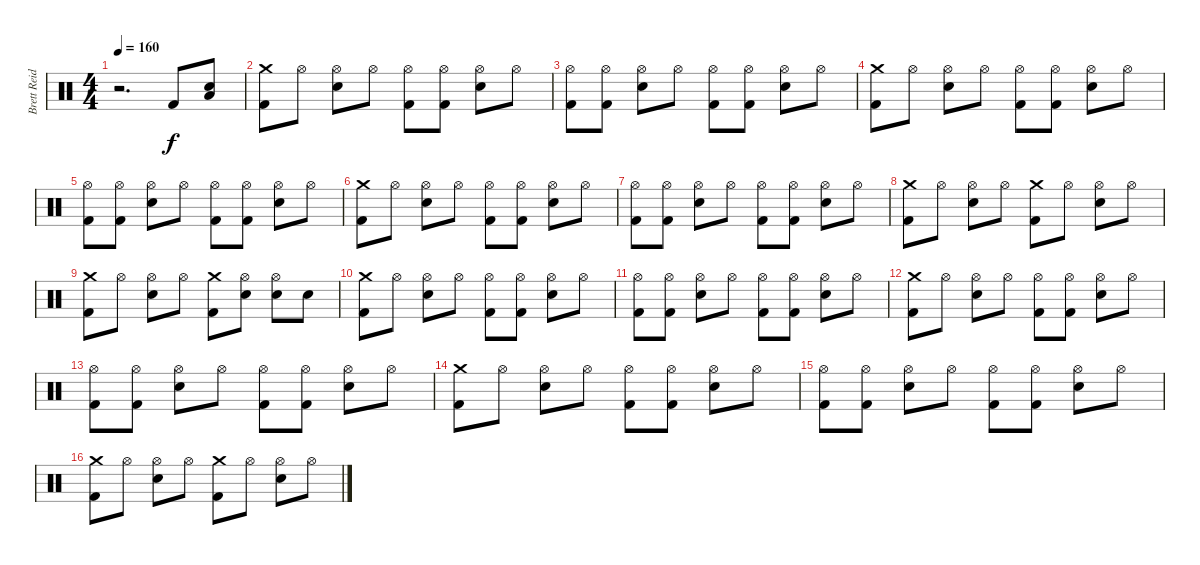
\track ("Brett Reid" "Brett Reid") {instrument percussion}
\staff {score}
\articulation defaults
\ts (4 4)
\tempo 160
\clef neutral
\ks c
r.2{d dy f} "Kick (hit) 2".8 ("Low Floor Tom (hit)" "Snare (hit) 2").8 |
("Crash medium (hit)" "Kick (hit) 2").8 "Hi-Hat (open)".8 ("Hi-Hat (open)" "Snare (hit) 2").8 "Hi-Hat (open)".8 ("Hi-Hat (open)" "Kick (hit) 2").8 ("Hi-Hat (open)" "Kick (hit) 2").8 ("Hi-Hat (open)" "Snare (hit) 2").8 "Hi-Hat (open)".8 |
("Hi-Hat (open)" "Kick (hit) 2").8 ("Hi-Hat (open)" "Kick (hit) 2").8 ("Hi-Hat (open)" "Snare (hit) 2").8 "Hi-Hat (open)".8 ("Hi-Hat (open)" "Kick (hit) 2").8 ("Hi-Hat (open)" "Kick (hit) 2").8 ("Hi-Hat (open)" "Snare (hit) 2").8 "Hi-Hat (open)".8 |
("Crash medium (hit)" "Kick (hit) 2").8 "Hi-Hat (open)".8 ("Hi-Hat (open)" "Snare (hit) 2").8 "Hi-Hat (open)".8 ("Hi-Hat (open)" "Kick (hit) 2").8 ("Hi-Hat (open)" "Kick (hit) 2").8 ("Hi-Hat (open)" "Snare (hit) 2").8 "Hi-Hat (open)".8 |
("Hi-Hat (open)" "Kick (hit) 2").8 ("Hi-Hat (open)" "Kick (hit) 2").8 ("Hi-Hat (open)" "Snare (hit) 2").8 "Hi-Hat (open)".8 ("Hi-Hat (open)" "Kick (hit) 2").8 ("Hi-Hat (open)" "Kick (hit) 2").8 ("Hi-Hat (open)" "Snare (hit) 2").8 "Hi-Hat (open)".8 |
("Crash medium (hit)" "Kick (hit) 2").8 "Hi-Hat (open)".8 ("Hi-Hat (open)" "Snare (hit) 2").8 "Hi-Hat (open)".8 ("Hi-Hat (open)" "Kick (hit) 2").8 ("Hi-Hat (open)" "Kick (hit) 2").8 ("Hi-Hat (open)" "Snare (hit) 2").8 "Hi-Hat (open)".8 |
("Hi-Hat (open)" "Kick (hit) 2").8 ("Hi-Hat (open)" "Kick (hit) 2").8 ("Hi-Hat (open)" "Snare (hit) 2").8 "Hi-Hat (open)".8 ("Hi-Hat (open)" "Kick (hit) 2").8 ("Hi-Hat (open)" "Kick (hit) 2").8 ("Hi-Hat (open)" "Snare (hit) 2").8 "Hi-Hat (open)".8 |
("Crash medium (hit)" "Kick (hit) 2").8 "Hi-Hat (open)".8 ("Hi-Hat (open)" "Snare (hit) 2").8 "Hi-Hat (open)".8 ("Crash medium (hit)" "Kick (hit) 2").8 "Hi-Hat (open)".8 ("Hi-Hat (open)" "Snare (hit) 2").8 "Hi-Hat (open)".8 |
("Crash medium (hit)" "Kick (hit) 2").8 "Hi-Hat (open)".8 ("Hi-Hat (open)" "Snare (hit) 2").8 "Hi-Hat (open)".8 ("Crash medium (hit)" "Kick (hit) 2").8 ("Hi-Hat (open)" "Snare (hit) 2").8 ("Hi-Hat (open)" "Snare (hit) 2").8 "Snare (hit) 2".8 |
("Crash medium (hit)" "Kick (hit) 2").8 "Hi-Hat (open)".8 ("Hi-Hat (open)" "Snare (hit) 2").8 "Hi-Hat (open)".8 ("Hi-Hat (open)" "Kick (hit) 2").8 ("Hi-Hat (open)" "Kick (hit) 2").8 ("Hi-Hat (open)" "Snare (hit) 2").8 "Hi-Hat (open)".8 |
("Hi-Hat (open)" "Kick (hit) 2").8 ("Hi-Hat (open)" "Kick (hit) 2").8 ("Hi-Hat (open)" "Snare (hit) 2").8 "Hi-Hat (open)".8 ("Hi-Hat (open)" "Kick (hit) 2").8 ("Hi-Hat (open)" "Kick (hit) 2").8 ("Hi-Hat (open)" "Snare (hit) 2").8 "Hi-Hat (open)".8 |
("Crash medium (hit)" "Kick (hit) 2").8 "Hi-Hat (open)".8 ("Hi-Hat (open)" "Snare (hit) 2").8 "Hi-Hat (open)".8 ("Hi-Hat (open)" "Kick (hit) 2").8 ("Hi-Hat (open)" "Kick (hit) 2").8 ("Hi-Hat (open)" "Snare (hit) 2").8 "Hi-Hat (open)".8 |
("Hi-Hat (open)" "Kick (hit) 2").8 ("Hi-Hat (open)" "Kick (hit) 2").8 ("Hi-Hat (open)" "Snare (hit) 2").8 "Hi-Hat (open)".8 ("Hi-Hat (open)" "Kick (hit) 2").8 ("Hi-Hat (open)" "Kick (hit) 2").8 ("Hi-Hat (open)" "Snare (hit) 2").8 "Hi-Hat (open)".8 |
("Crash medium (hit)" "Kick (hit) 2").8 "Hi-Hat (open)".8 ("Hi-Hat (open)" "Snare (hit) 2").8 "Hi-Hat (open)".8 ("Hi-Hat (open)" "Kick (hit) 2").8 ("Hi-Hat (open)" "Kick (hit) 2").8 ("Hi-Hat (open)" "Snare (hit) 2").8 "Hi-Hat (open)".8 |
("Hi-Hat (open)" "Kick (hit) 2").8 ("Hi-Hat (open)" "Kick (hit) 2").8 ("Hi-Hat (open)" "Snare (hit) 2").8 "Hi-Hat (open)".8 ("Hi-Hat (open)" "Kick (hit) 2").8 ("Hi-Hat (open)" "Kick (hit) 2").8 ("Hi-Hat (open)" "Snare (hit) 2").8 "Hi-Hat (open)".8 |
("Crash medium (hit)" "Kick (hit) 2").8 "Hi-Hat (open)".8 ("Hi-Hat (open)" "Snare (hit) 2").8 "Hi-Hat (open)".8 ("Crash medium (hit)" "Kick (hit) 2").8 "Hi-Hat (open)".8 ("Hi-Hat (open)" "Snare (hit) 2").8 "Hi-Hat (open)".8
